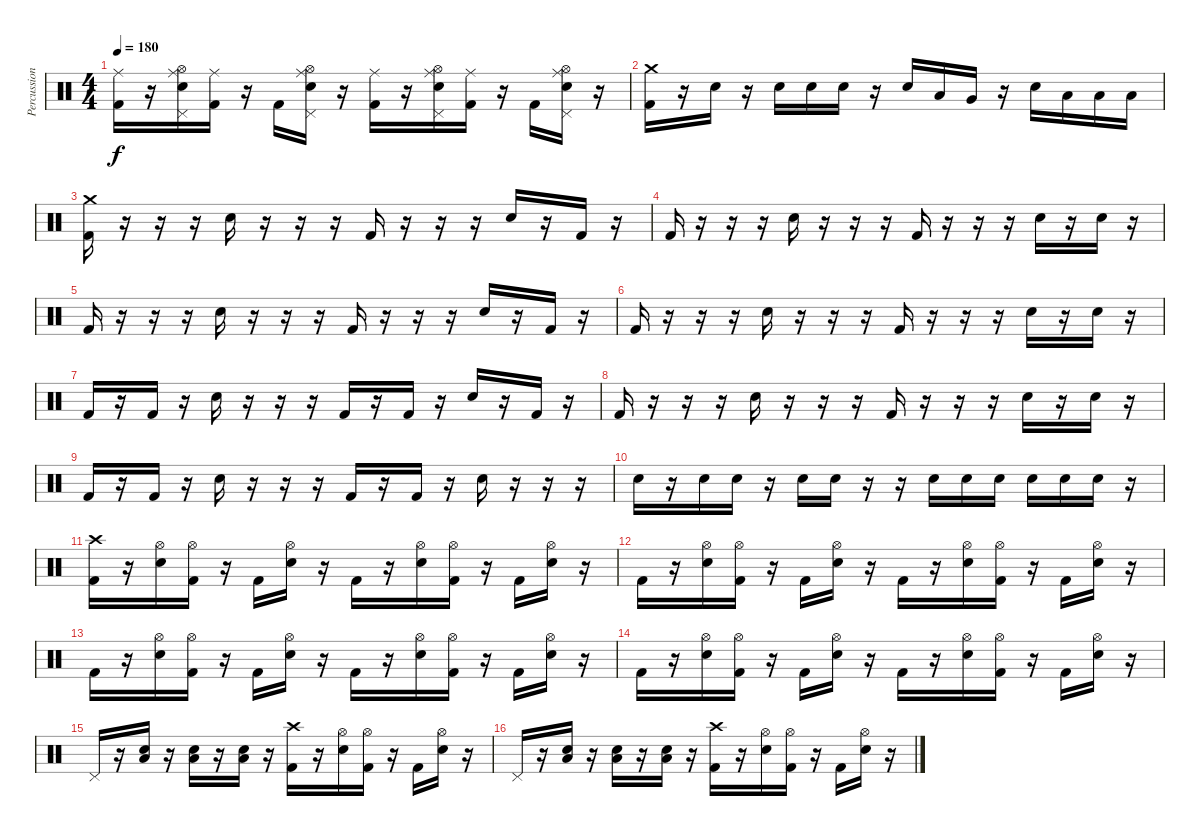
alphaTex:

\track ("Percussion" "Percussion") {instrument percussion}
\staff {score}
\articulation defaults
\ts (4 4)
\tempo 180
\clef neutral
\ks c
("Ride (middle)" "Kick (hit) 2").16{dy f} r.16 ("Ride (middle)" "Hi-Hat (open)" "Pedal Hi-Hat (hit)" "Electric Snare (hit)").16 ("Ride (middle)" "Kick (hit) 2").16 r.16 "Kick (hit) 2".16 ("Ride (middle)" "Hi-Hat (open)" "Pedal Hi-Hat (hit)" "Electric Snare (hit)").16 r.16 ("Ride (middle)" "Kick (hit) 2").16 r.16 ("Ride (middle)" "Hi-Hat (open)" "Pedal Hi-Hat (hit)" "Electric Snare (hit)").16 ("Ride (middle)" "Kick (hit) 2").16 r.16 "Kick (hit) 2".16 ("Ride (middle)" "Hi-Hat (open)" "Pedal Hi-Hat (hit)" "Electric Snare (hit)").16 r.16 |
("Crash medium (hit)" "Kick (hit) 2").16 r.16 "Electric Snare (hit)".16 r.16 "Electric Snare (hit)".16 "Electric Snare (hit)".16 "Electric Snare (hit)".16 r.16 "Electric Snare (hit)".16 "Low Tom (hit)".16 "Very Low Tom (hit)".16 r.16 "Electric Snare (hit)".16 "Low Tom (hit)".16 "Low Tom (hit)".16 "Low Tom (hit)".16 |
("Crash medium (hit)" "Kick (hit) 2").16 r.16 r.16 r.16 "Electric Snare (hit)".16 r.16 r.16 r.16 "Kick (hit) 2".16 r.16 r.16 r.16 "Electric Snare (hit)".16 r.16 "Kick (hit) 2".16 r.16 |
"Kick (hit) 2".16 r.16 r.16 r.16 "Electric Snare (hit)".16 r.16 r.16 r.16 "Kick (hit) 2".16 r.16 r.16 r.16 "Electric Snare (hit)".16 r.16 "Electric Snare (hit)".16 r.16 |
"Kick (hit) 2".16 r.16 r.16 r.16 "Electric Snare (hit)".16 r.16 r.16 r.16 "Kick (hit) 2".16 r.16 r.16 r.16 "Electric Snare (hit)".16 r.16 "Kick (hit) 2".16 r.16 |
"Kick (hit) 2".16 r.16 r.16 r.16 "Electric Snare (hit)".16 r.16 r.16 r.16 "Kick (hit) 2".16 r.16 r.16 r.16 "Electric Snare (hit)".16 r.16 "Electric Snare (hit)".16 r.16 |
"Kick (hit) 2".16 r.16 "Kick (hit) 2".16 r.16 "Electric Snare (hit)".16 r.16 r.16 r.16 "Kick (hit) 2".16 r.16 "Kick (hit) 2".16 r.16 "Electric Snare (hit)".16 r.16 "Kick (hit) 2".16 r.16 |
"Kick (hit) 2".16 r.16 r.16 r.16 "Electric Snare (hit)".16 r.16 r.16 r.16 "Kick (hit) 2".16 r.16 r.16 r.16 "Electric Snare (hit)".16 r.16 "Electric Snare (hit)".16 r.16 |
"Kick (hit) 2".16 r.16 "Kick (hit) 2".16 r.16 "Electric Snare (hit)".16 r.16 r.16 r.16 "Kick (hit) 2".16 r.16 "Kick (hit) 2".16 r.16 "Electric Snare (hit)".16 r.16 r.16 r.16 |
"Electric Snare (hit)".16 r.16 "Electric Snare (hit)".16 "Electric Snare (hit)".16 r.16 "Electric Snare (hit)".16 "Electric Snare (hit)".16 r.16 r.16 "Electric Snare (hit)".16 "Electric Snare (hit)".16 "Electric Snare (hit)".16 "Electric Snare (hit)".16 "Electric Snare (hit)".16 "Electric Snare (hit)".16 r.16 |
("Crash high (hit)" "Kick (hit) 2").16 r.16 ("Hi-Hat (open)" "Electric Snare (hit)").16 ("Hi-Hat (open)" "Kick (hit) 2").16 r.16 "Kick (hit) 2".16 ("Hi-Hat (open)" "Electric Snare (hit)").16 r.16 "Kick (hit) 2".16 r.16 ("Hi-Hat (open)" "Electric Snare (hit)").16 ("Hi-Hat (open)" "Kick (hit) 2").16 r.16 "Kick (hit) 2".16 ("Hi-Hat (open)" "Electric Snare (hit)").16 r.16 |
"Kick (hit) 2".16 r.16 ("Hi-Hat (open)" "Electric Snare (hit)").16 ("Hi-Hat (open)" "Kick (hit) 2").16 r.16 "Kick (hit) 2".16 ("Hi-Hat (open)" "Electric Snare (hit)").16 r.16 "Kick (hit) 2".16 r.16 ("Hi-Hat (open)" "Electric Snare (hit)").16 ("Hi-Hat (open)" "Kick (hit) 2").16 r.16 "Kick (hit) 2".16 ("Hi-Hat (open)" "Electric Snare (hit)").16 r.16 |
"Kick (hit) 2".16 r.16 ("Hi-Hat (open)" "Electric Snare (hit)").16 ("Hi-Hat (open)" "Kick (hit) 2").16 r.16 "Kick (hit) 2".16 ("Hi-Hat (open)" "Electric Snare (hit)").16 r.16 "Kick (hit) 2".16 r.16 ("Hi-Hat (open)" "Electric Snare (hit)").16 ("Hi-Hat (open)" "Kick (hit) 2").16 r.16 "Kick (hit) 2".16 ("Hi-Hat (open)" "Electric Snare (hit)").16 r.16 |
"Kick (hit) 2".16 r.16 ("Hi-Hat (open)" "Electric Snare (hit)").16 ("Hi-Hat (open)" "Kick (hit) 2").16 r.16 "Kick (hit) 2".16 ("Hi-Hat (open)" "Electric Snare (hit)").16 r.16 "Kick (hit) 2".16 r.16 ("Hi-Hat (open)" "Electric Snare (hit)").16 ("Hi-Hat (open)" "Kick (hit) 2").16 r.16 "Kick (hit) 2".16 ("Hi-Hat (open)" "Electric Snare (hit)").16 r.16 |
"Pedal Hi-Hat (hit)".16 r.16 ("Low Tom (hit)" "Electric Snare (hit)").16 r.16 ("Low Tom (hit)" "Electric Snare (hit)").16 r.16 ("Low Tom (hit)" "Electric Snare (hit)").16 r.16 ("Crash high (hit)" "Kick (hit) 2").16 r.16 ("Hi-Hat (open)" "Electric Snare (hit)").16 ("Hi-Hat (open)" "Kick (hit) 2").16 r.16 "Kick (hit) 2".16 ("Hi-Hat (open)" "Electric Snare (hit)").16 r.16 |
"Pedal Hi-Hat (hit)".16 r.16 ("Low Tom (hit)" "Electric Snare (hit)").16 r.16 ("Low Tom (hit)" "Electric Snare (hit)").16 r.16 ("Low Tom (hit)" "Electric Snare (hit)").16 r.16 ("Crash high (hit)" "Kick (hit) 2").16 r.16 ("Hi-Hat (open)" "Electric Snare (hit)").16 ("Hi-Hat (open)" "Kick (hit) 2").16 r.16 "Kick (hit) 2".16 ("Hi-Hat (open)" "Electric Snare (hit)").16 r.16
